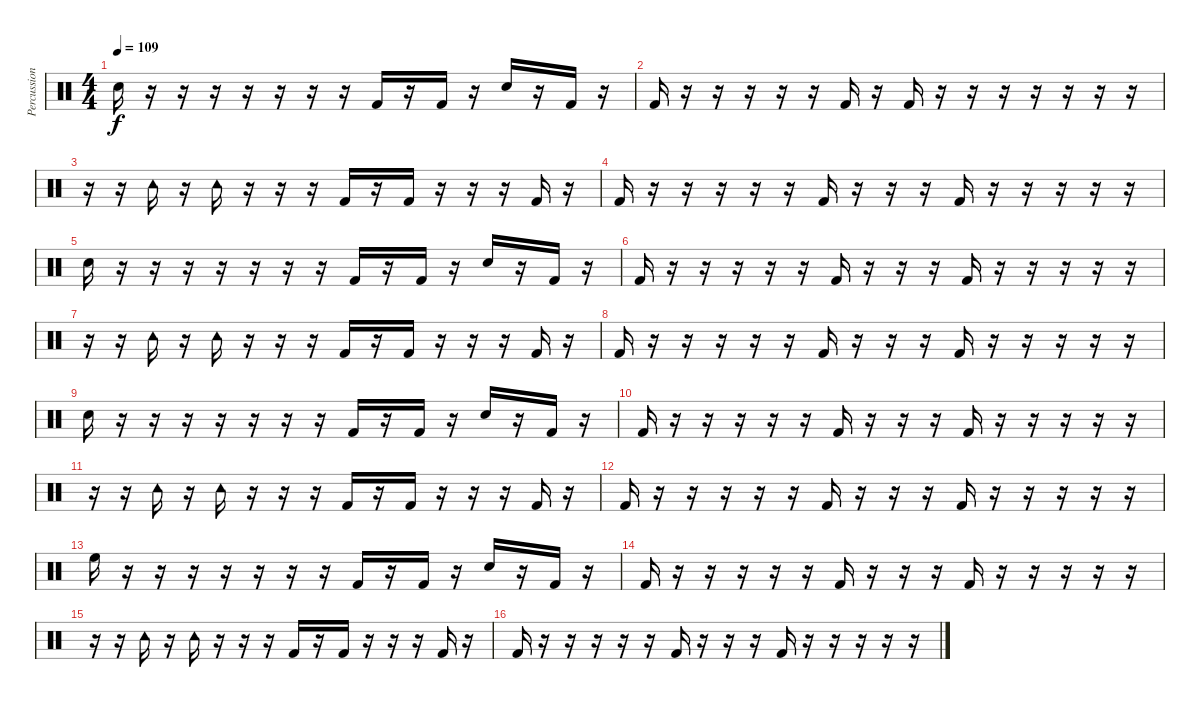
\track ("Percussion" "Percussion") {instrument percussion}
\staff {score}
\articulation defaults
\ts (4 4)
\tempo 109
\clef neutral
\ks c "Electric Snare (hit)".16{dy f}
r.16 r.16 r.16 r.16 r.16 r.16 r.16 "Kick (hit) 2".16 r.16 "Kick (hit) 2".16 r.16 "Electric Snare (hit)".16 r.16 "Kick (hit) 2".16 r.16 |
"Kick (hit) 2".16 r.16 r.16 r.16 r.16 r.16 "Kick (hit) 2".16 r.16 "Kick (hit) 2".16 r.16 r.16 r.16 r.16 r.16 r.16 r.16 |
r.16 r.16 "Tambourine (hit)".16 r.16 "Tambourine (hit)".16 r.16 r.16 r.16 "Kick (hit) 2".16 r.16 "Kick (hit) 2".16 r.16 r.16 r.16 "Kick (hit) 2".16 r.16 |
"Kick (hit) 2".16 r.16 r.16 r.16 r.16 r.16 "Kick (hit) 2".16 r.16 r.16 r.16 "Kick (hit) 2".16 r.16 r.16 r.16 r.16 r.16 |
"Electric Snare (hit)".16 r.16 r.16 r.16 r.16 r.16 r.16 r.16 "Kick (hit) 2".16 r.16 "Kick (hit) 2".16 r.16 "Electric Snare (hit)".16 r.16 "Kick (hit) 2".16 r.16 |
"Kick (hit) 2".16 r.16 r.16 r.16 r.16 r.16 "Kick (hit) 2".16 r.16 r.16 r.16 "Kick (hit) 2".16 r.16 r.16 r.16 r.16 r.16 |
r.16 r.16 "Tambourine (hit)".16 r.16 "Tambourine (hit)".16 r.16 r.16 r.16 "Kick (hit) 2".16 r.16 "Kick (hit) 2".16 r.16 r.16 r.16 "Kick (hit) 2".16 r.16 |
"Kick (hit) 2".16 r.16 r.16 r.16 r.16 r.16 "Kick (hit) 2".16 r.16 r.16 r.16 "Kick (hit) 2".16 r.16 r.16 r.16 r.16 r.16 |
"Electric Snare (hit)".16 r.16 r.16 r.16 r.16 r.16 r.16 r.16 "Kick (hit) 2".16 r.16 "Kick (hit) 2".16 r.16 "Electric Snare (hit)".16 r.16 "Kick (hit) 2".16 r.16 |
"Kick (hit) 2".16 r.16 r.16 r.16 r.16 r.16 "Kick (hit) 2".16 r.16 r.16 r.16 "Kick (hit) 2".16 r.16 r.16 r.16 r.16 r.16 |
r.16 r.16 "Tambourine (hit)".16 r.16 "Tambourine (hit)".16 r.16 r.16 r.16 "Kick (hit) 2".16 r.16 "Kick (hit) 2".16 r.16 r.16 r.16 "Kick (hit) 2".16 r.16 |
"Kick (hit) 2".16 r.16 r.16 r.16 r.16 r.16 "Kick (hit) 2".16 r.16 r.16 r.16 "Kick (hit) 2".16 r.16 r.16 r.16 r.16 r.16 |
"High Floor Tom (hit)".16 r.16 r.16 r.16 r.16 r.16 r.16 r.16 "Kick (hit) 2".16 r.16 "Kick (hit) 2".16 r.16 "Electric Snare (hit)".16 r.16 "Kick (hit) 2".16 r.16 |
"Kick (hit) 2".16 r.16 r.16 r.16 r.16 r.16 "Kick (hit) 2".16 r.16 r.16 r.16 "Kick (hit) 2".16 r.16 r.16 r.16 r.16 r.16 |
r.16 r.16 "Tambourine (hit)".16 r.16 "Tambourine (hit)".16 r.16 r.16 r.16 "Kick (hit) 2".16 r.16 "Kick (hit) 2".16 r.16 r.16 r.16 "Kick (hit) 2".16 r.16 |
"Kick (hit) 2".16 r.16 r.16 r.16 r.16 r.16 "Kick (hit) 2".16 r.16 r.16 r.16 "Kick (hit) 2".16 r.16 r.16 r.16 r.16 r.16
